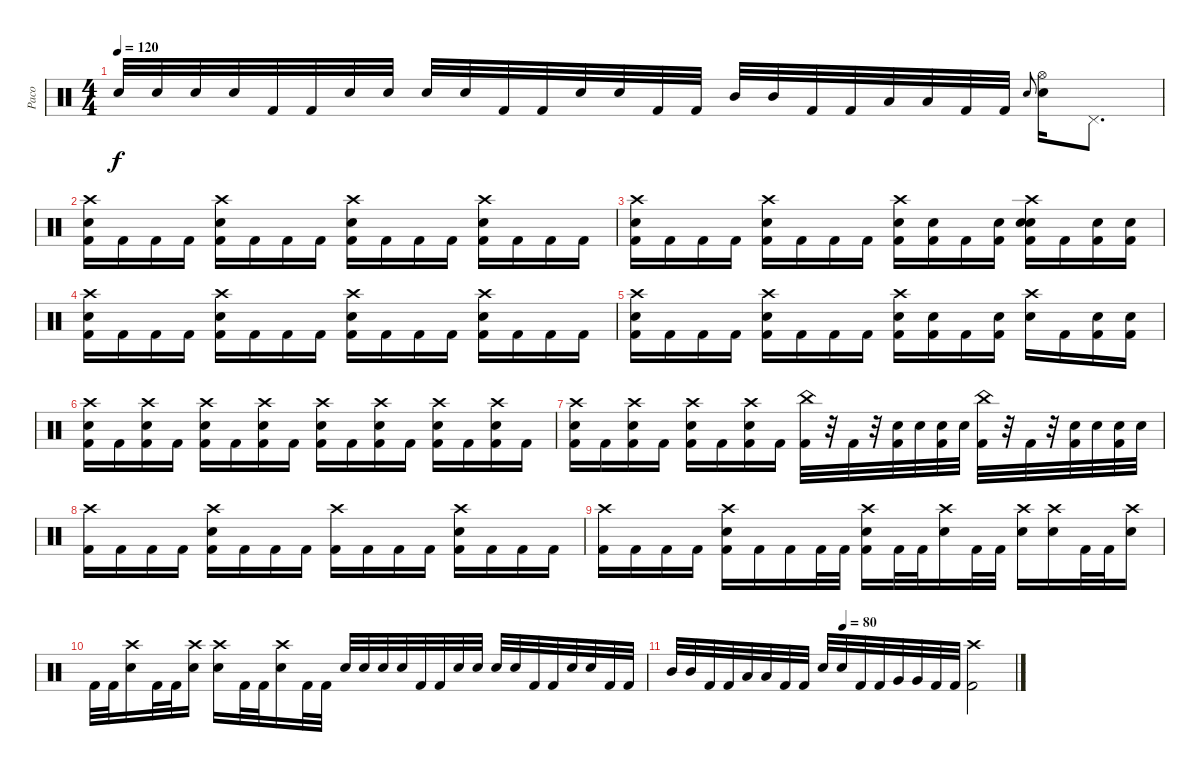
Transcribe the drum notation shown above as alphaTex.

\track ("Paco" "Paco") {instrument percussion}
\staff {score}
\articulation defaults
\ts (4 4)
\tempo 120
\clef neutral
\ks c "Electric Snare (hit)".32{dy f} "Electric Snare (hit)".32 "Electric Snare (hit)".32 "Electric Snare (hit)".32 "Kick (hit) 2".32 "Kick (hit) 2".32 "Electric Snare (hit)".32 "Electric Snare (hit)".32 "Electric Snare (hit)".32 "Electric Snare (hit)".32 "Kick (hit) 2".32 "Kick (hit) 2".32 "Electric Snare (hit)".32 "Electric Snare (hit)".32 "Kick (hit) 2".32 "Kick (hit) 2".32 "Mid Tom (hit)".32 "Mid Tom (hit)".32 "Kick (hit) 2".32 "Kick (hit) 2".32 "Low Tom (hit)".32 "Low Tom (hit)".32 "Kick (hit) 2".32 "Kick (hit) 2".32 "Electric Snare (hit)".8{gr onbeat}
("Hi-Hat (open)" "Electric Snare (hit)").16 "Pedal Hi-Hat (hit)".8{d} |
("Crash high (hit)" "Electric Snare (hit)" "Kick (hit) 2").16{volume 13} "Kick (hit) 2".16 "Kick (hit) 2".16 "Kick (hit) 2".16 ("Crash high (hit)" "Electric Snare (hit)" "Kick (hit) 2").16 "Kick (hit) 2".16 "Kick (hit) 2".16 "Kick (hit) 2".16 ("Crash high (hit)" "Electric Snare (hit)" "Kick (hit) 2").16 "Kick (hit) 2".16 "Kick (hit) 2".16 "Kick (hit) 2".16 ("Crash high (hit)" "Electric Snare (hit)" "Kick (hit) 2").16 "Kick (hit) 2".16 "Kick (hit) 2".16 "Kick (hit) 2".16 |
("Crash high (hit)" "Electric Snare (hit)" "Kick (hit) 2").16 "Kick (hit) 2".16 "Kick (hit) 2".16 "Kick (hit) 2".16 ("Crash high (hit)" "Electric Snare (hit)" "Kick (hit) 2").16 "Kick (hit) 2".16 "Kick (hit) 2".16 "Kick (hit) 2".16 ("Crash high (hit)" "Electric Snare (hit)" "Kick (hit) 2").16 ("Electric Snare (hit)" "Kick (hit) 2").16 "Kick (hit) 2".16 ("Electric Snare (hit)" "Kick (hit) 2").16 ("Crash high (hit)" "Electric Snare (hit)" "Electric Snare (hit)" "Kick (hit) 2").16 "Kick (hit) 2".16 ("Electric Snare (hit)" "Kick (hit) 2").16 ("Electric Snare (hit)" "Kick (hit) 2").16 |
("Crash high (hit)" "Electric Snare (hit)" "Kick (hit) 2").16 "Kick (hit) 2".16 "Kick (hit) 2".16 "Kick (hit) 2".16 ("Crash high (hit)" "Electric Snare (hit)" "Kick (hit) 2").16 "Kick (hit) 2".16 "Kick (hit) 2".16 "Kick (hit) 2".16 ("Crash high (hit)" "Electric Snare (hit)" "Kick (hit) 2").16 "Kick (hit) 2".16 "Kick (hit) 2".16 "Kick (hit) 2".16 ("Crash high (hit)" "Electric Snare (hit)" "Kick (hit) 2").16 "Kick (hit) 2".16 "Kick (hit) 2".16 "Kick (hit) 2".16 |
("Crash high (hit)" "Electric Snare (hit)" "Kick (hit) 2").16 "Kick (hit) 2".16 "Kick (hit) 2".16 "Kick (hit) 2".16 ("Crash high (hit)" "Electric Snare (hit)" "Kick (hit) 2").16 "Kick (hit) 2".16 "Kick (hit) 2".16 "Kick (hit) 2".16 ("Crash high (hit)" "Electric Snare (hit)" "Kick (hit) 2").16 ("Electric Snare (hit)" "Kick (hit) 2").16 "Kick (hit) 2".16 ("Electric Snare (hit)" "Kick (hit) 2").16 ("Crash high (hit)" "Electric Snare (hit)").16 "Kick (hit) 2".16 ("Electric Snare (hit)" "Kick (hit) 2").16 ("Electric Snare (hit)" "Kick (hit) 2").16 |
("Crash high (hit)" "Electric Snare (hit)" "Kick (hit) 2").16 "Kick (hit) 2".16 ("Crash high (hit)" "Electric Snare (hit)" "Kick (hit) 2").16 "Kick (hit) 2".16 ("Crash high (hit)" "Electric Snare (hit)" "Kick (hit) 2").16 "Kick (hit) 2".16 ("Crash high (hit)" "Electric Snare (hit)" "Kick (hit) 2").16 "Kick (hit) 2".16 ("Crash high (hit)" "Electric Snare (hit)" "Kick (hit) 2").16 "Kick (hit) 2".16 ("Crash high (hit)" "Electric Snare (hit)" "Kick (hit) 2").16 "Kick (hit) 2".16 ("Crash high (hit)" "Electric Snare (hit)" "Kick (hit) 2").16 "Kick (hit) 2".16 ("Crash high (hit)" "Electric Snare (hit)" "Kick (hit) 2").16 "Kick (hit) 2".16 |
("Crash high (hit)" "Electric Snare (hit)" "Kick (hit) 2").16 "Kick (hit) 2".16 ("Crash high (hit)" "Electric Snare (hit)" "Kick (hit) 2").16 "Kick (hit) 2".16 ("Crash high (hit)" "Electric Snare (hit)" "Kick (hit) 2").16 "Kick (hit) 2".16 ("Crash high (hit)" "Electric Snare (hit)" "Kick (hit) 2").16 "Kick (hit) 2".16 ("China (hit)" "Kick (hit) 2").32 r.32 "Kick (hit) 2".32 r.32 ("Electric Snare (hit)" "Kick (hit) 2").32 "Electric Snare (hit)".32 ("Electric Snare (hit)" "Kick (hit) 2").32 "Electric Snare (hit)".32 ("China (hit)" "Kick (hit) 2").32 r.32 "Kick (hit) 2".32 r.32 ("Electric Snare (hit)" "Kick (hit) 2").32 "Electric Snare (hit)".32 ("Electric Snare (hit)" "Kick (hit) 2").32 "Electric Snare (hit)".32 |
("Crash high (hit)" "Kick (hit) 2").16 "Kick (hit) 2".16 "Kick (hit) 2".16 "Kick (hit) 2".16 ("Crash high (hit)" "Electric Snare (hit)" "Kick (hit) 2").16 "Kick (hit) 2".16 "Kick (hit) 2".16 "Kick (hit) 2".16 ("Crash high (hit)" "Kick (hit) 2").16 "Kick (hit) 2".16 "Kick (hit) 2".16 "Kick (hit) 2".16 ("Crash high (hit)" "Electric Snare (hit)" "Kick (hit) 2").16 "Kick (hit) 2".16 "Kick (hit) 2".16 "Kick (hit) 2".16 |
("Crash high (hit)" "Kick (hit) 2").16 "Kick (hit) 2".16 "Kick (hit) 2".16 "Kick (hit) 2".16 ("Crash high (hit)" "Electric Snare (hit)" "Kick (hit) 2").16 "Kick (hit) 2".16 "Kick (hit) 2".16 "Kick (hit) 2".32 "Kick (hit) 2".32 ("Crash high (hit)" "Electric Snare (hit)" "Kick (hit) 2").16 "Kick (hit) 2".32 "Kick (hit) 2".32 ("Crash high (hit)" "Electric Snare (hit)").16 "Kick (hit) 2".32 "Kick (hit) 2".32 ("Crash high (hit)" "Electric Snare (hit)").16 ("Crash high (hit)" "Electric Snare (hit)").16 "Kick (hit) 2".32 "Kick (hit) 2".32 ("Crash high (hit)" "Electric Snare (hit)").16 |
"Kick (hit) 2".32 "Kick (hit) 2".32 ("Crash high (hit)" "Electric Snare (hit)").16 "Kick (hit) 2".32 "Kick (hit) 2".32 ("Crash high (hit)" "Electric Snare (hit)").16 ("Crash high (hit)" "Electric Snare (hit)").16 "Kick (hit) 2".32 "Kick (hit) 2".32 ("Crash high (hit)" "Electric Snare (hit)").16 "Kick (hit) 2".32 "Kick (hit) 2".32 "Electric Snare (hit)".32 "Electric Snare (hit)".32 "Electric Snare (hit)".32 "Electric Snare (hit)".32 "Kick (hit) 2".32 "Kick (hit) 2".32 "Electric Snare (hit)".32 "Electric Snare (hit)".32 "Electric Snare (hit)".32 "Electric Snare (hit)".32 "Kick (hit) 2".32 "Kick (hit) 2".32 "Electric Snare (hit)".32 "Electric Snare (hit)".32 "Kick (hit) 2".32 "Kick (hit) 2".32 |
\tempo (80 0.5)
"Mid Tom (hit)".32 "Mid Tom (hit)".32 "Kick (hit) 2".32 "Kick (hit) 2".32 "Low Tom (hit)".32 "Low Tom (hit)".32 "Kick (hit) 2".32 "Kick (hit) 2".32 "Electric Snare (hit)".32 "Electric Snare (hit)".32 "Kick (hit) 2".32 "Kick (hit) 2".32 "Very Low Tom (hit)".32 "Very Low Tom (hit)".32 "Kick (hit) 2".32 "Kick (hit) 2".32 ("Crash high (hit)" "Kick (hit) 2").2
